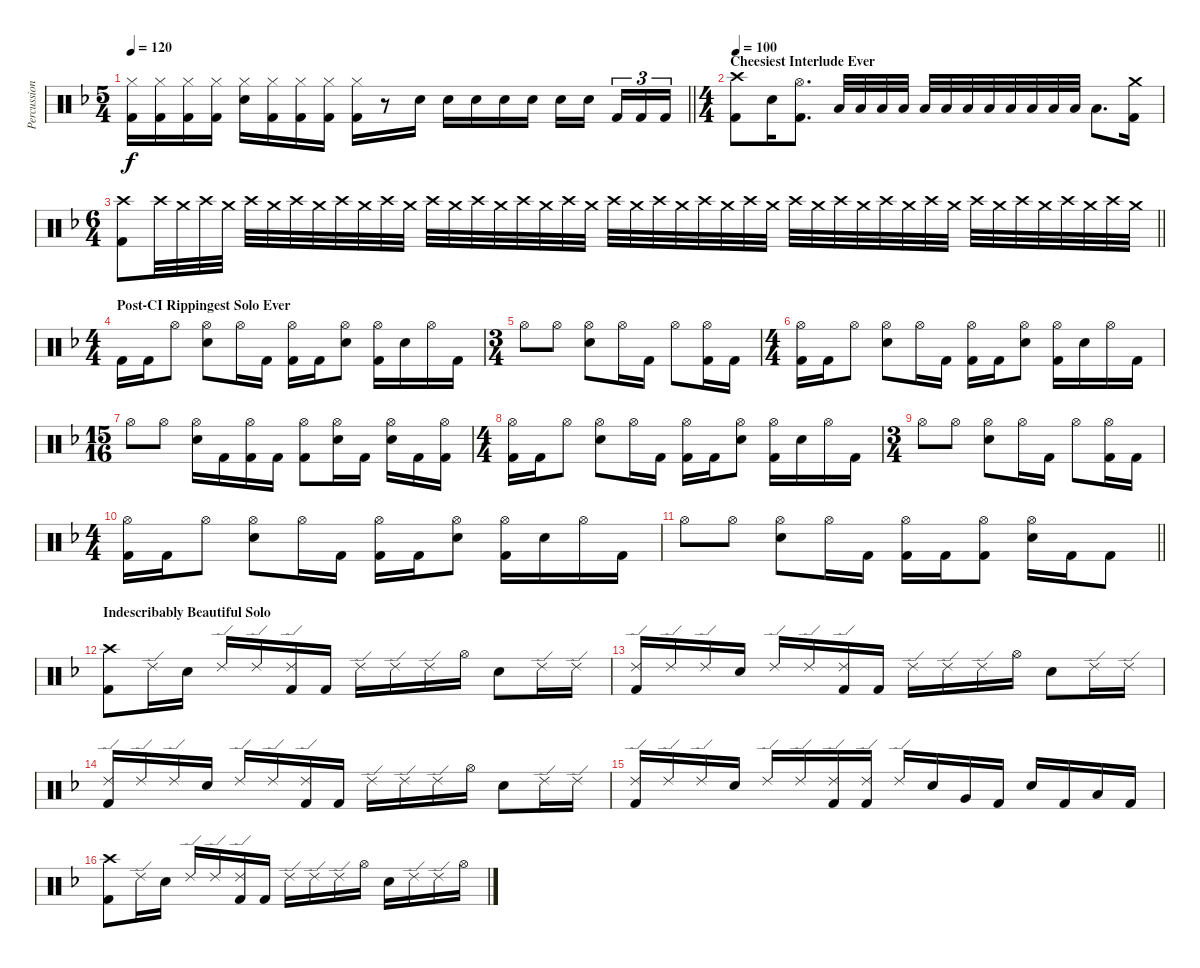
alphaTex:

\track ("Percussion" "Percussion") {instrument percussion}
\staff {score}
\articulation defaults
\ts (5 4)
\tempo 120
\clef neutral
\barLineRight lightlight
\ks dminor
("Hi-Hat (closed)" "Kick (hit) 2").16{dy f} ("Hi-Hat (closed)" "Kick (hit) 2").16 ("Hi-Hat (closed)" "Kick (hit) 2").16 ("Hi-Hat (closed)" "Kick (hit) 2").16 ("Hi-Hat (closed)" "Snare (hit) 2").16 ("Hi-Hat (closed)" "Kick (hit) 2").16 ("Hi-Hat (closed)" "Kick (hit) 2").16 ("Hi-Hat (closed)" "Kick (hit) 2").16 ("Hi-Hat (closed)" "Kick (hit) 2").16 r.8 "Snare (hit) 2".16 "Snare (hit) 2".16 "Snare (hit) 2".16 "Snare (hit) 2".16 "Snare (hit) 2".16 "Snare (hit) 2".16 "Snare (hit) 2".16{beam splitsecondary} "Kick (hit) 2".16{tu (3 2)} "Kick (hit) 2".16{tu (3 2)} "Kick (hit) 2".16{tu (3 2)} |
\ts (4 4)
\section ("" "Cheesiest Interlude Ever")
\tempo 100
("Crash high (hit)" "Kick (hit) 2").8 "Snare (hit) 2".16 ("Hi-Hat (open)" "Kick (hit) 2").8{d} "Low Floor Tom (hit)".32 "Low Floor Tom (hit)".32 "Low Floor Tom (hit)".32 "Low Floor Tom (hit)".32 "Low Floor Tom (hit)".32 "Low Floor Tom (hit)".32 "Low Floor Tom (hit)".32 "Low Floor Tom (hit)".32 "Low Floor Tom (hit)".32 "Low Floor Tom (hit)".32 "Low Floor Tom (hit)".32 "Low Floor Tom (hit)".32 "Low Floor Tom (hit)".8{d} ("Crash medium (hit)" "Kick (hit) 2").16 |
\ts (6 4)
\barLineRight lightlight
("Crash high (hit)" "Kick (hit) 2").8 "Crash high (hit)".32{volume 6} "Crash medium (hit)".32 "Crash high (hit)".32 "Crash medium (hit)".32 "Crash high (hit)".32 "Crash medium (hit)".32 "Crash high (hit)".32 "Crash medium (hit)".32 "Crash high (hit)".32 "Crash medium (hit)".32 "Crash high (hit)".32 "Crash medium (hit)".32 "Crash high (hit)".32 "Crash medium (hit)".32 "Crash high (hit)".32 "Crash medium (hit)".32 "Crash high (hit)".32 "Crash medium (hit)".32 "Crash high (hit)".32 "Crash medium (hit)".32 "Crash high (hit)".32 "Crash medium (hit)".32 "Crash high (hit)".32 "Crash medium (hit)".32 "Crash high (hit)".32 "Crash medium (hit)".32 "Crash high (hit)".32 "Crash medium (hit)".32 "Crash high (hit)".32 "Crash medium (hit)".32 "Crash high (hit)".32 "Crash medium (hit)".32 "Crash high (hit)".32 "Crash medium (hit)".32 "Crash high (hit)".32 "Crash medium (hit)".32 "Crash high (hit)".32 "Crash medium (hit)".32 "Crash high (hit)".32 "Crash medium (hit)".32 "Crash high (hit)".32 "Crash medium (hit)".32 "Crash high (hit)".32 "Crash medium (hit)".32 |
\ts (4 4)
\section ("" "Post-CI Rippingest Solo Ever")
"Kick (hit) 2".16{volume 12} "Kick (hit) 2".16 "Hi-Hat (open)".8 ("Hi-Hat (open)" "Snare (hit) 2").8 "Hi-Hat (open)".16 "Kick (hit) 2".16 ("Hi-Hat (open)" "Kick (hit) 2").16 "Kick (hit) 2".16 ("Hi-Hat (open)" "Snare (hit) 2").8 ("Hi-Hat (open)" "Kick (hit) 2").16 "Snare (hit) 2".16 "Hi-Hat (open)".16 "Kick (hit) 2".16 |
\ts (3 4)
"Hi-Hat (open)".8 "Hi-Hat (open)".8 ("Hi-Hat (open)" "Snare (hit) 2").8 "Hi-Hat (open)".16 "Kick (hit) 2".16 "Hi-Hat (open)".8 ("Hi-Hat (open)" "Kick (hit) 2").16 "Kick (hit) 2".16 |
\ts (4 4)
("Hi-Hat (open)" "Kick (hit) 2").16 "Kick (hit) 2".16 "Hi-Hat (open)".8 ("Hi-Hat (open)" "Snare (hit) 2").8 "Hi-Hat (open)".16 "Kick (hit) 2".16 ("Hi-Hat (open)" "Kick (hit) 2").16 "Kick (hit) 2".16 ("Hi-Hat (open)" "Snare (hit) 2").8 ("Hi-Hat (open)" "Kick (hit) 2").16 "Snare (hit) 2".16 "Hi-Hat (open)".16 "Kick (hit) 2".16 |
\ts (15 16)
"Hi-Hat (open)".8 "Hi-Hat (open)".8 ("Hi-Hat (open)" "Snare (hit) 2").16 "Kick (hit) 2".16 ("Hi-Hat (open)" "Kick (hit) 2").16 "Kick (hit) 2".16 ("Hi-Hat (open)" "Kick (hit) 2").8 ("Hi-Hat (open)" "Snare (hit) 2").16 "Kick (hit) 2".16 ("Hi-Hat (open)" "Snare (hit) 2").16 "Kick (hit) 2".16 ("Hi-Hat (open)" "Kick (hit) 2").16 |
\ts (4 4)
("Hi-Hat (open)" "Kick (hit) 2").16 "Kick (hit) 2".16 "Hi-Hat (open)".8 ("Hi-Hat (open)" "Snare (hit) 2").8 "Hi-Hat (open)".16 "Kick (hit) 2".16 ("Hi-Hat (open)" "Kick (hit) 2").16 "Kick (hit) 2".16 ("Hi-Hat (open)" "Snare (hit) 2").8 ("Hi-Hat (open)" "Kick (hit) 2").16 "Snare (hit) 2".16 "Hi-Hat (open)".16 "Kick (hit) 2".16 |
\ts (3 4)
"Hi-Hat (open)".8 "Hi-Hat (open)".8 ("Hi-Hat (open)" "Snare (hit) 2").8 "Hi-Hat (open)".16 "Kick (hit) 2".16 "Hi-Hat (open)".8 ("Hi-Hat (open)" "Kick (hit) 2").16 "Kick (hit) 2".16 |
\ts (4 4)
("Hi-Hat (open)" "Kick (hit) 2").16 "Kick (hit) 2".16 "Hi-Hat (open)".8 ("Hi-Hat (open)" "Snare (hit) 2").8 "Hi-Hat (open)".16 "Kick (hit) 2".16 ("Hi-Hat (open)" "Kick (hit) 2").16 "Kick (hit) 2".16 ("Hi-Hat (open)" "Snare (hit) 2").8 ("Hi-Hat (open)" "Kick (hit) 2").16 "Snare (hit) 2".16 "Hi-Hat (open)".16 "Kick (hit) 2".16 |
\barLineRight lightlight "Hi-Hat (open)".8 "Hi-Hat (open)".8
("Hi-Hat (open)" "Snare (hit) 2").8 "Hi-Hat (open)".16 "Kick (hit) 2".16 ("Hi-Hat (open)" "Kick (hit) 2").16 "Kick (hit) 2".16 ("Hi-Hat (open)" "Kick (hit) 2").8 ("Hi-Hat (open)" "Snare (hit) 2").16 "Kick (hit) 2".16 "Kick (hit) 2".8 |
\section ("" "Indescribably Beautiful Solo")
("Crash high (hit)" "Kick (hit) 2").8 "Ride (edge) 2".16 "Snare (hit) 2".16 "Ride (edge) 2".16 "Ride (edge) 2".16 ("Ride (edge) 2" "Kick (hit) 2").16 "Kick (hit) 2".16 "Ride (edge) 2".16 "Ride (edge) 2".16 "Ride (edge) 2".16 "Hi-Hat (open)".16 "Snare (hit) 2".8 "Ride (edge) 2".16 "Ride (edge) 2".16 |
("Ride (edge) 2" "Kick (hit) 2").16 "Ride (edge) 2".16 "Ride (edge) 2".16 "Snare (hit) 2".16 "Ride (edge) 2".16 "Ride (edge) 2".16 ("Ride (edge) 2" "Kick (hit) 2").16 "Kick (hit) 2".16 "Ride (edge) 2".16 "Ride (edge) 2".16 "Ride (edge) 2".16 "Hi-Hat (open)".16 "Snare (hit) 2".8 "Ride (edge) 2".16 "Ride (edge) 2".16 |
("Ride (edge) 2" "Kick (hit) 2").16 "Ride (edge) 2".16 "Ride (edge) 2".16 "Snare (hit) 2".16 "Ride (edge) 2".16 "Ride (edge) 2".16 ("Ride (edge) 2" "Kick (hit) 2").16 "Kick (hit) 2".16 "Ride (edge) 2".16 "Ride (edge) 2".16 "Ride (edge) 2".16 "Hi-Hat (open)".16 "Snare (hit) 2".8 "Ride (edge) 2".16 "Ride (edge) 2".16 |
("Ride (edge) 2" "Kick (hit) 2").16 "Ride (edge) 2".16 "Ride (edge) 2".16 "Snare (hit) 2".16 "Ride (edge) 2".16 "Ride (edge) 2".16 ("Ride (edge) 2" "Kick (hit) 2").16 ("Ride (edge) 2" "Kick (hit) 2").16 "Ride (edge) 2".16 "Snare (hit) 2".16 "Very Low Tom (hit)".16 "Kick (hit) 2".16 "Snare (hit) 2".16 "Kick (hit) 2".16 "Low Floor Tom (hit)".16 "Kick (hit) 2".16 |
("Crash high (hit)" "Kick (hit) 2").8 "Ride (edge) 2".16 "Snare (hit) 2".16 "Ride (edge) 2".16 "Ride (edge) 2".16 ("Ride (edge) 2" "Kick (hit) 2").16 "Kick (hit) 2".16 "Ride (edge) 2".16 "Ride (edge) 2".16 "Ride (edge) 2".16 "Hi-Hat (open)".16 "Snare (hit) 2".16 "Ride (edge) 2".16 "Ride (edge) 2".16 "Hi-Hat (open)".16
